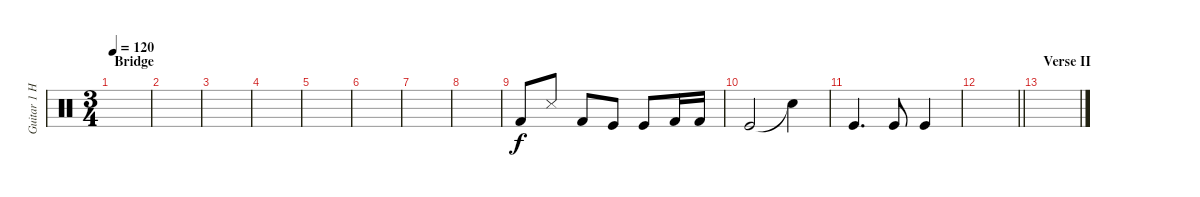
\track ("Guitar 1 Hit" "Guitar 1 H") {instrument percussion}
\staff {score}
\articulation defaults
\ts (3 4)
\section ("" "Bridge")
\tempo 120
\clef neutral
\ks c
|
|
|
|
|
|
|
|
"Kick (hit) 2".8 "Snare (side stick) 3".8 "Kick (hit) 2".8 "Kick (hit)".8 "Kick (hit)".8 "Kick (hit) 2".16 "Kick (hit) 2".16 |
"Kick (hit)".2 "Snare (hit)"{t}.4 |
"Kick (hit)".4{d} "Kick (hit)".8 "Kick (hit)".4 |
\barLineRight lightlight
|
\section ("" "Verse II")
